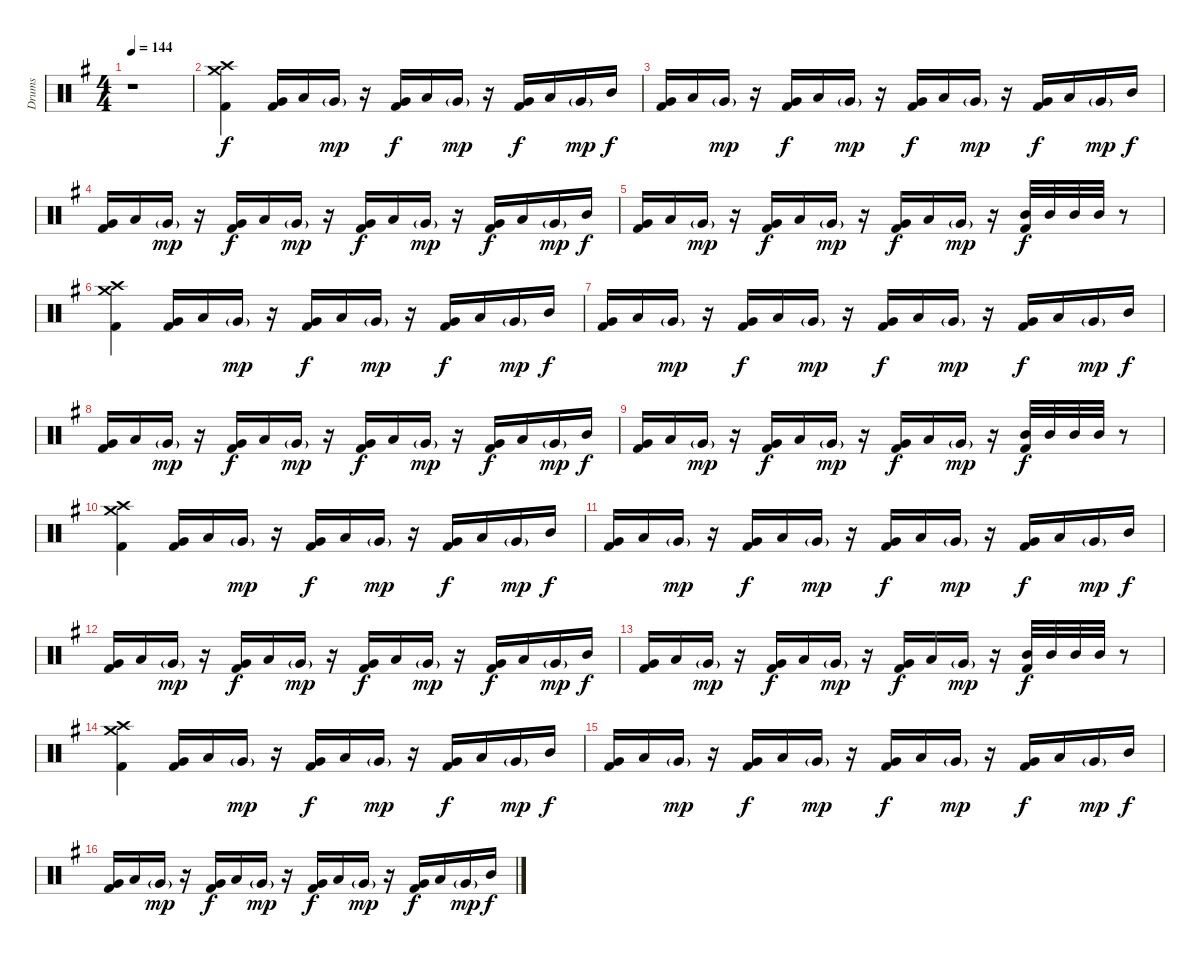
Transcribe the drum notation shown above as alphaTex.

\track ("Drums" "Drums") {instrument percussion}
\staff {score}
\articulation defaults
\ts (4 4)
\tempo 144
\clef neutral
\ks eminor
r.1{dy f} |
("Crash high (hit)" "Crash medium (hit)" "Kick (hit) 2").4 ("Very Low Tom (hit)" "Kick (hit) 2").16 "Low Tom (hit)".16 "Very Low Tom (hit)"{g}.16{dy mp} r.16 ("Very Low Tom (hit)" "Kick (hit) 2").16{dy f} "Low Tom (hit)".16 "Very Low Tom (hit)"{g}.16{dy mp} r.16 ("Very Low Tom (hit)" "Kick (hit) 2").16{dy f} "Low Tom (hit)".16 "Very Low Tom (hit)"{g}.16{dy mp} "Mid Tom (hit)".16{dy f} |
("Very Low Tom (hit)" "Kick (hit) 2").16 "Low Tom (hit)".16 "Very Low Tom (hit)"{g}.16{dy mp} r.16 ("Very Low Tom (hit)" "Kick (hit) 2").16{dy f} "Low Tom (hit)".16 "Very Low Tom (hit)"{g}.16{dy mp} r.16 ("Very Low Tom (hit)" "Kick (hit) 2").16{dy f} "Low Tom (hit)".16 "Very Low Tom (hit)"{g}.16{dy mp} r.16 ("Very Low Tom (hit)" "Kick (hit) 2").16{dy f} "Low Tom (hit)".16 "Very Low Tom (hit)"{g}.16{dy mp} "Mid Tom (hit)".16{dy f} |
("Very Low Tom (hit)" "Kick (hit) 2").16 "Low Tom (hit)".16 "Very Low Tom (hit)"{g}.16{dy mp} r.16 ("Very Low Tom (hit)" "Kick (hit) 2").16{dy f} "Low Tom (hit)".16 "Very Low Tom (hit)"{g}.16{dy mp} r.16 ("Very Low Tom (hit)" "Kick (hit) 2").16{dy f} "Low Tom (hit)".16 "Very Low Tom (hit)"{g}.16{dy mp} r.16 ("Very Low Tom (hit)" "Kick (hit) 2").16{dy f} "Low Tom (hit)".16 "Very Low Tom (hit)"{g}.16{dy mp} "Mid Tom (hit)".16{dy f} |
("Very Low Tom (hit)" "Kick (hit) 2").16 "Low Tom (hit)".16 "Very Low Tom (hit)"{g}.16{dy mp} r.16 ("Very Low Tom (hit)" "Kick (hit) 2").16{dy f} "Low Tom (hit)".16 "Very Low Tom (hit)"{g}.16{dy mp} r.16 ("Very Low Tom (hit)" "Kick (hit) 2").16{dy f} "Low Tom (hit)".16 "Very Low Tom (hit)"{g}.16{dy mp} r.16 ("Mid Tom (hit)" "Kick (hit) 2").32{dy f} "Mid Tom (hit)".32 "Mid Tom (hit)".32 "Mid Tom (hit)".32 r.8 |
("Crash high (hit)" "Crash medium (hit)" "Kick (hit) 2").4 ("Very Low Tom (hit)" "Kick (hit) 2").16 "Low Tom (hit)".16 "Very Low Tom (hit)"{g}.16{dy mp} r.16 ("Very Low Tom (hit)" "Kick (hit) 2").16{dy f} "Low Tom (hit)".16 "Very Low Tom (hit)"{g}.16{dy mp} r.16 ("Very Low Tom (hit)" "Kick (hit) 2").16{dy f} "Low Tom (hit)".16 "Very Low Tom (hit)"{g}.16{dy mp} "Mid Tom (hit)".16{dy f} |
("Very Low Tom (hit)" "Kick (hit) 2").16 "Low Tom (hit)".16 "Very Low Tom (hit)"{g}.16{dy mp} r.16 ("Very Low Tom (hit)" "Kick (hit) 2").16{dy f} "Low Tom (hit)".16 "Very Low Tom (hit)"{g}.16{dy mp} r.16 ("Very Low Tom (hit)" "Kick (hit) 2").16{dy f} "Low Tom (hit)".16 "Very Low Tom (hit)"{g}.16{dy mp} r.16 ("Very Low Tom (hit)" "Kick (hit) 2").16{dy f} "Low Tom (hit)".16 "Very Low Tom (hit)"{g}.16{dy mp} "Mid Tom (hit)".16{dy f} |
("Very Low Tom (hit)" "Kick (hit) 2").16 "Low Tom (hit)".16 "Very Low Tom (hit)"{g}.16{dy mp} r.16 ("Very Low Tom (hit)" "Kick (hit) 2").16{dy f} "Low Tom (hit)".16 "Very Low Tom (hit)"{g}.16{dy mp} r.16 ("Very Low Tom (hit)" "Kick (hit) 2").16{dy f} "Low Tom (hit)".16 "Very Low Tom (hit)"{g}.16{dy mp} r.16 ("Very Low Tom (hit)" "Kick (hit) 2").16{dy f} "Low Tom (hit)".16 "Very Low Tom (hit)"{g}.16{dy mp} "Mid Tom (hit)".16{dy f} |
("Very Low Tom (hit)" "Kick (hit) 2").16 "Low Tom (hit)".16 "Very Low Tom (hit)"{g}.16{dy mp} r.16 ("Very Low Tom (hit)" "Kick (hit) 2").16{dy f} "Low Tom (hit)".16 "Very Low Tom (hit)"{g}.16{dy mp} r.16 ("Very Low Tom (hit)" "Kick (hit) 2").16{dy f} "Low Tom (hit)".16 "Very Low Tom (hit)"{g}.16{dy mp} r.16 ("Mid Tom (hit)" "Kick (hit) 2").32{dy f} "Mid Tom (hit)".32 "Mid Tom (hit)".32 "Mid Tom (hit)".32 r.8 |
("Crash high (hit)" "Crash medium (hit)" "Kick (hit) 2").4 ("Very Low Tom (hit)" "Kick (hit) 2").16 "Low Tom (hit)".16 "Very Low Tom (hit)"{g}.16{dy mp} r.16 ("Very Low Tom (hit)" "Kick (hit) 2").16{dy f} "Low Tom (hit)".16 "Very Low Tom (hit)"{g}.16{dy mp} r.16 ("Very Low Tom (hit)" "Kick (hit) 2").16{dy f} "Low Tom (hit)".16 "Very Low Tom (hit)"{g}.16{dy mp} "Mid Tom (hit)".16{dy f} |
("Very Low Tom (hit)" "Kick (hit) 2").16 "Low Tom (hit)".16 "Very Low Tom (hit)"{g}.16{dy mp} r.16 ("Very Low Tom (hit)" "Kick (hit) 2").16{dy f} "Low Tom (hit)".16 "Very Low Tom (hit)"{g}.16{dy mp} r.16 ("Very Low Tom (hit)" "Kick (hit) 2").16{dy f} "Low Tom (hit)".16 "Very Low Tom (hit)"{g}.16{dy mp} r.16 ("Very Low Tom (hit)" "Kick (hit) 2").16{dy f} "Low Tom (hit)".16 "Very Low Tom (hit)"{g}.16{dy mp} "Mid Tom (hit)".16{dy f} |
("Very Low Tom (hit)" "Kick (hit) 2").16 "Low Tom (hit)".16 "Very Low Tom (hit)"{g}.16{dy mp} r.16 ("Very Low Tom (hit)" "Kick (hit) 2").16{dy f} "Low Tom (hit)".16 "Very Low Tom (hit)"{g}.16{dy mp} r.16 ("Very Low Tom (hit)" "Kick (hit) 2").16{dy f} "Low Tom (hit)".16 "Very Low Tom (hit)"{g}.16{dy mp} r.16 ("Very Low Tom (hit)" "Kick (hit) 2").16{dy f} "Low Tom (hit)".16 "Very Low Tom (hit)"{g}.16{dy mp} "Mid Tom (hit)".16{dy f} |
("Very Low Tom (hit)" "Kick (hit) 2").16 "Low Tom (hit)".16 "Very Low Tom (hit)"{g}.16{dy mp} r.16 ("Very Low Tom (hit)" "Kick (hit) 2").16{dy f} "Low Tom (hit)".16 "Very Low Tom (hit)"{g}.16{dy mp} r.16 ("Very Low Tom (hit)" "Kick (hit) 2").16{dy f} "Low Tom (hit)".16 "Very Low Tom (hit)"{g}.16{dy mp} r.16 ("Mid Tom (hit)" "Kick (hit) 2").32{dy f} "Mid Tom (hit)".32 "Mid Tom (hit)".32 "Mid Tom (hit)".32 r.8 |
("Crash high (hit)" "Crash medium (hit)" "Kick (hit) 2").4 ("Very Low Tom (hit)" "Kick (hit) 2").16 "Low Tom (hit)".16 "Very Low Tom (hit)"{g}.16{dy mp} r.16 ("Very Low Tom (hit)" "Kick (hit) 2").16{dy f} "Low Tom (hit)".16 "Very Low Tom (hit)"{g}.16{dy mp} r.16 ("Very Low Tom (hit)" "Kick (hit) 2").16{dy f} "Low Tom (hit)".16 "Very Low Tom (hit)"{g}.16{dy mp} "Mid Tom (hit)".16{dy f} |
("Very Low Tom (hit)" "Kick (hit) 2").16 "Low Tom (hit)".16 "Very Low Tom (hit)"{g}.16{dy mp} r.16 ("Very Low Tom (hit)" "Kick (hit) 2").16{dy f} "Low Tom (hit)".16 "Very Low Tom (hit)"{g}.16{dy mp} r.16 ("Very Low Tom (hit)" "Kick (hit) 2").16{dy f} "Low Tom (hit)".16 "Very Low Tom (hit)"{g}.16{dy mp} r.16 ("Very Low Tom (hit)" "Kick (hit) 2").16{dy f} "Low Tom (hit)".16 "Very Low Tom (hit)"{g}.16{dy mp} "Mid Tom (hit)".16{dy f} |
("Very Low Tom (hit)" "Kick (hit) 2").16 "Low Tom (hit)".16 "Very Low Tom (hit)"{g}.16{dy mp} r.16 ("Very Low Tom (hit)" "Kick (hit) 2").16{dy f} "Low Tom (hit)".16 "Very Low Tom (hit)"{g}.16{dy mp} r.16 ("Very Low Tom (hit)" "Kick (hit) 2").16{dy f} "Low Tom (hit)".16 "Very Low Tom (hit)"{g}.16{dy mp} r.16 ("Very Low Tom (hit)" "Kick (hit) 2").16{dy f} "Low Tom (hit)".16 "Very Low Tom (hit)"{g}.16{dy mp} "Mid Tom (hit)".16{dy f}
